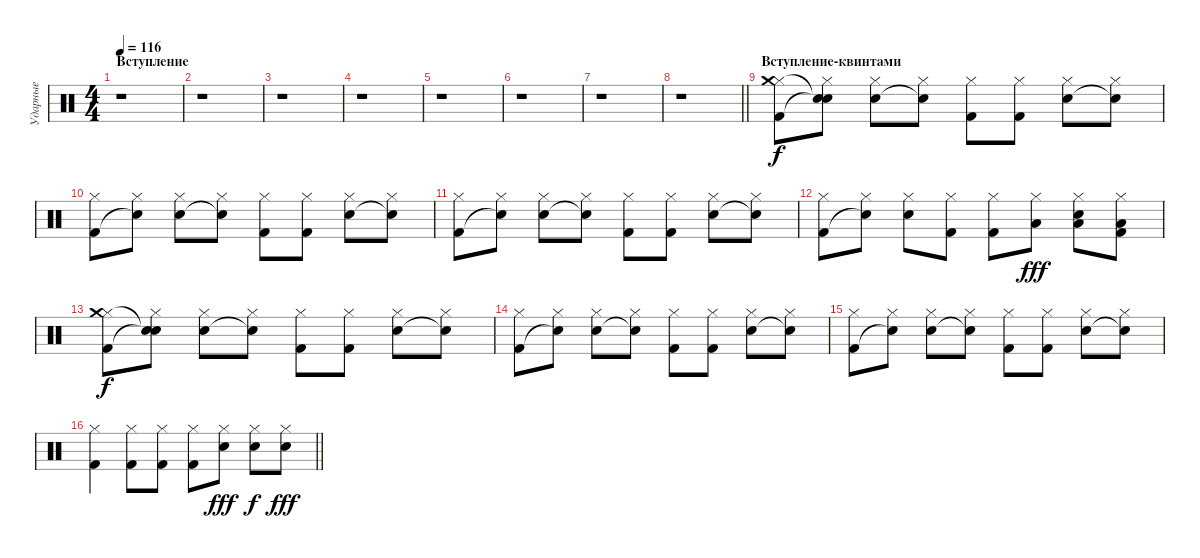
\track ("Ударные" "Ударные") {instrument percussion}
\staff {score}
\articulation defaults
\ts (4 4)
\section ("" "Вступление")
\tempo 116
\clef neutral
\ks c
r.1{dy f} |
r.1 |
r.1 |
r.1 |
r.1 |
r.1 |
r.1 |
\barLineRight lightlight
r.1 |
\section ("" "Вступление-квинтами")
("Hi-Hat (closed)" "Crash medium (hit)" "Kick (hit) 2").8 ("Hi-Hat (closed)" "Snare (hit)"{t} "Snare (hit)"{t}).8 ("Hi-Hat (closed)" "Snare (hit) 2").8 ("Hi-Hat (closed)" "Snare (hit)"{t}).8 ("Hi-Hat (closed)" "Kick (hit) 2").8 ("Hi-Hat (closed)" "Kick (hit) 2").8 ("Hi-Hat (closed)" "Snare (hit) 2").8 ("Hi-Hat (closed)" "Snare (hit)"{t}).8 |
("Hi-Hat (closed)" "Kick (hit) 2").8 ("Hi-Hat (closed)" "Snare (hit)"{t}).8 ("Hi-Hat (closed)" "Snare (hit) 2").8 ("Hi-Hat (closed)" "Snare (hit)"{t}).8 ("Hi-Hat (closed)" "Kick (hit) 2").8 ("Hi-Hat (closed)" "Kick (hit) 2").8 ("Hi-Hat (closed)" "Snare (hit) 2").8 ("Hi-Hat (closed)" "Snare (hit)"{t}).8 |
("Hi-Hat (closed)" "Kick (hit) 2").8 ("Hi-Hat (closed)" "Snare (hit)"{t}).8 ("Hi-Hat (closed)" "Snare (hit) 2").8 ("Hi-Hat (closed)" "Snare (hit)"{t}).8 ("Hi-Hat (closed)" "Kick (hit) 2").8 ("Hi-Hat (closed)" "Kick (hit) 2").8 ("Hi-Hat (closed)" "Snare (hit) 2").8 ("Hi-Hat (closed)" "Snare (hit)"{t}).8 |
("Hi-Hat (closed)" "Kick (hit) 2").8 ("Hi-Hat (closed)" "Snare (hit)"{t}).8 ("Hi-Hat (closed)" "Snare (hit) 2").8 ("Hi-Hat (closed)" "Kick (hit) 2").8 ("Hi-Hat (closed)" "Kick (hit) 2").8 ("Hi-Hat (closed)" "Low Tom (hit)").8{dy fff} ("Hi-Hat (closed)" "Snare (hit) 2" "Low Tom (hit)").8 ("Hi-Hat (closed)" "Kick (hit) 2" "Low Tom (hit)").8 |
("Hi-Hat (closed)" "Crash medium (hit)" "Kick (hit) 2").8{dy f} ("Hi-Hat (closed)" "Snare (hit)"{t} "Snare (hit)"{t}).8 ("Hi-Hat (closed)" "Snare (hit) 2").8 ("Hi-Hat (closed)" "Snare (hit)"{t}).8 ("Hi-Hat (closed)" "Kick (hit) 2").8 ("Hi-Hat (closed)" "Kick (hit) 2").8 ("Hi-Hat (closed)" "Snare (hit) 2").8 ("Hi-Hat (closed)" "Snare (hit)"{t}).8 |
("Hi-Hat (closed)" "Kick (hit) 2").8 ("Hi-Hat (closed)" "Snare (hit)"{t}).8 ("Hi-Hat (closed)" "Snare (hit) 2").8 ("Hi-Hat (closed)" "Snare (hit)"{t}).8 ("Hi-Hat (closed)" "Kick (hit) 2").8 ("Hi-Hat (closed)" "Kick (hit) 2").8 ("Hi-Hat (closed)" "Snare (hit) 2").8 ("Hi-Hat (closed)" "Snare (hit)"{t}).8 |
("Hi-Hat (closed)" "Kick (hit) 2").8 ("Hi-Hat (closed)" "Snare (hit)"{t}).8 ("Hi-Hat (closed)" "Snare (hit) 2").8 ("Hi-Hat (closed)" "Snare (hit)"{t}).8 ("Hi-Hat (closed)" "Kick (hit) 2").8 ("Hi-Hat (closed)" "Kick (hit) 2").8 ("Hi-Hat (closed)" "Snare (hit) 2").8 ("Hi-Hat (closed)" "Snare (hit)"{t}).8 |
\barLineRight lightlight
("Hi-Hat (closed)" "Kick (hit) 2").4 ("Hi-Hat (closed)" "Kick (hit) 2").8 ("Hi-Hat (closed)" "Kick (hit) 2").8 ("Hi-Hat (closed)" "Kick (hit) 2").8 ("Hi-Hat (closed)" "Snare (hit) 2").8{dy fff} ("Hi-Hat (closed)" "Snare (hit) 2").8{dy f} ("Hi-Hat (closed)" "Snare (hit) 2").8{dy fff}
